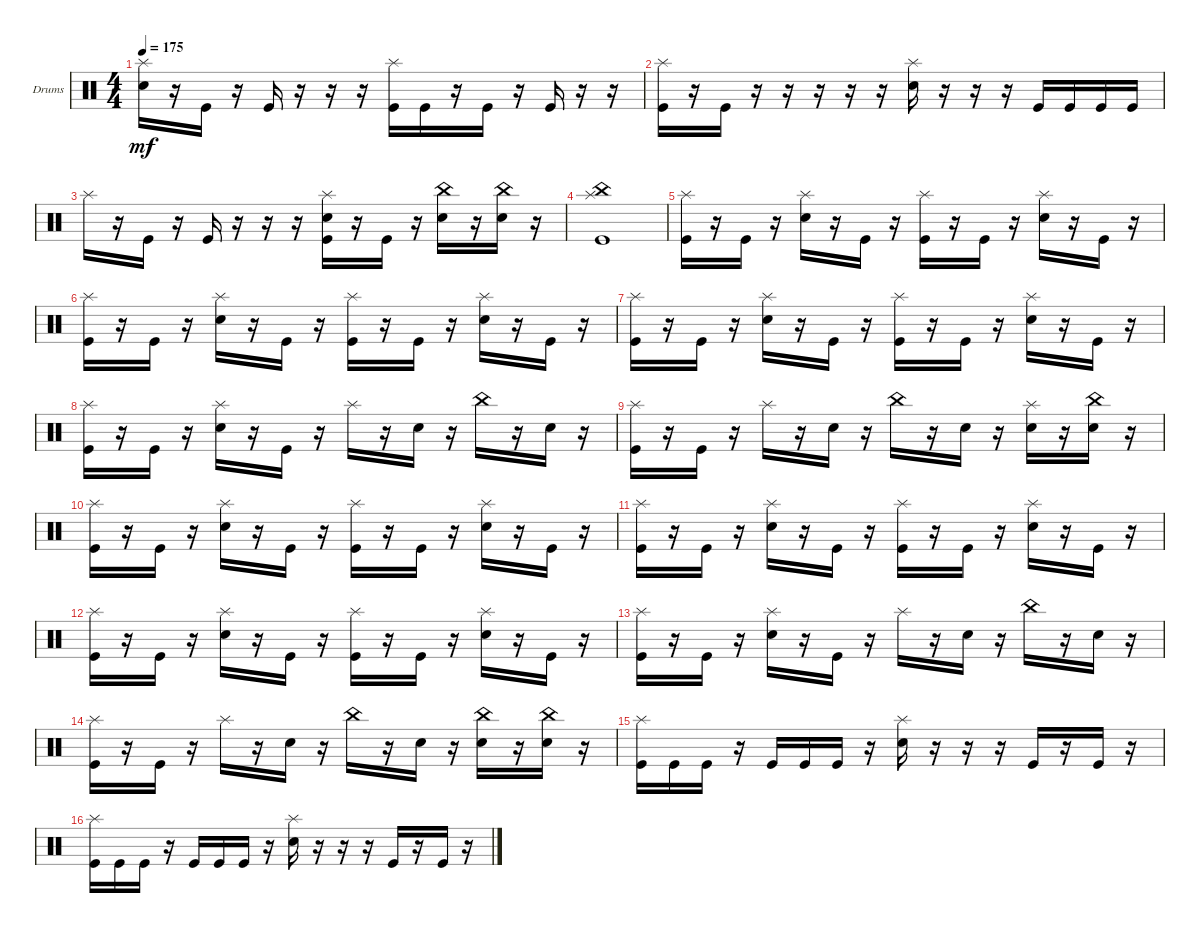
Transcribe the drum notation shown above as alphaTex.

\bracketExtendMode groupsimilarinstruments
\firstSystemTrackNameOrientation horizontal
\otherSystemsTrackNameOrientation horizontal
\track ("Drumkit" "Drums") {solo instrument percussion}
\staff {score}
\articulation defaults
\ts (4 4)
\tempo 175
\clef neutral
\ks c
("Splash (hit)" "Snare (hit) 2").16{dy mf} r.16 "Kick (hit)".16 r.16 "Kick (hit)".16 r.16 r.16 r.16 ("Splash (hit)" "Kick (hit)").16 "Kick (hit)".16 r.16 "Kick (hit)".16 r.16 "Kick (hit)".16 r.16 r.16 |
("Kick (hit)" "Splash (hit)").16 r.16 "Kick (hit)".16 r.16 r.16 r.16 r.16 r.16 ("Splash (hit)" "Snare (hit) 2").16 r.16 r.16 r.16 "Kick (hit)".16 "Kick (hit)".16 "Kick (hit)".16 "Kick (hit)".16 |
"Splash (hit)".16 r.16 "Kick (hit)".16 r.16 "Kick (hit)".16 r.16 r.16 r.16 ("Splash (hit)" "Kick (hit)" "Snare (hit) 2").16 r.16 "Kick (hit)".16 r.16 ("China (hit)" "Snare (hit) 2").16 r.16 ("China (hit)" "Snare (hit) 2").16 r.16 |
("Kick (hit)" "Splash (hit)" "China (hit)").1 |
("Splash (hit)" "Kick (hit)").16 r.16 "Kick (hit)".16 r.16 ("Splash (hit)" "Snare (hit) 2").16 r.16 "Kick (hit)".16 r.16 ("Splash (hit)" "Kick (hit)").16 r.16 "Kick (hit)".16 r.16 ("Splash (hit)" "Snare (hit) 2").16 r.16 "Kick (hit)".16 r.16 |
("Splash (hit)" "Kick (hit)").16 r.16 "Kick (hit)".16 r.16 ("Splash (hit)" "Snare (hit) 2").16 r.16 "Kick (hit)".16 r.16 ("Splash (hit)" "Kick (hit)").16 r.16 "Kick (hit)".16 r.16 ("Splash (hit)" "Snare (hit) 2").16 r.16 "Kick (hit)".16 r.16 |
("Splash (hit)" "Kick (hit)").16 r.16 "Kick (hit)".16 r.16 ("Splash (hit)" "Snare (hit) 2").16 r.16 "Kick (hit)".16 r.16 ("Splash (hit)" "Kick (hit)").16 r.16 "Kick (hit)".16 r.16 ("Splash (hit)" "Snare (hit) 2").16 r.16 "Kick (hit)".16 r.16 |
("Splash (hit)" "Kick (hit)").16 r.16 "Kick (hit)".16 r.16 ("Splash (hit)" "Snare (hit) 2").16 r.16 "Kick (hit)".16 r.16 "Splash (hit)".16 r.16 "Snare (hit) 2".16 r.16 "China (hit)".16 r.16 "Snare (hit) 2".16 r.16 |
("Splash (hit)" "Kick (hit)").16 r.16 "Kick (hit)".16 r.16 "Splash (hit)".16 r.16 "Snare (hit) 2".16 r.16 "China (hit)".16 r.16 "Snare (hit) 2".16 r.16 ("Splash (hit)" "Snare (hit) 2").16 r.16 ("Snare (hit) 2" "China (hit)").16 r.16 |
("Splash (hit)" "Kick (hit)").16 r.16 "Kick (hit)".16 r.16 ("Splash (hit)" "Snare (hit) 2").16 r.16 "Kick (hit)".16 r.16 ("Splash (hit)" "Kick (hit)").16 r.16 "Kick (hit)".16 r.16 ("Splash (hit)" "Snare (hit) 2").16 r.16 "Kick (hit)".16 r.16 |
("Splash (hit)" "Kick (hit)").16 r.16 "Kick (hit)".16 r.16 ("Splash (hit)" "Snare (hit) 2").16 r.16 "Kick (hit)".16 r.16 ("Splash (hit)" "Kick (hit)").16 r.16 "Kick (hit)".16 r.16 ("Splash (hit)" "Snare (hit) 2").16 r.16 "Kick (hit)".16 r.16 |
("Splash (hit)" "Kick (hit)").16 r.16 "Kick (hit)".16 r.16 ("Splash (hit)" "Snare (hit) 2").16 r.16 "Kick (hit)".16 r.16 ("Splash (hit)" "Kick (hit)").16 r.16 "Kick (hit)".16 r.16 ("Splash (hit)" "Snare (hit) 2").16 r.16 "Kick (hit)".16 r.16 |
("Splash (hit)" "Kick (hit)").16 r.16 "Kick (hit)".16 r.16 ("Splash (hit)" "Snare (hit) 2").16 r.16 "Kick (hit)".16 r.16 "Splash (hit)".16 r.16 "Snare (hit) 2".16 r.16 "China (hit)".16 r.16 "Snare (hit) 2".16 r.16 |
("Splash (hit)" "Kick (hit)").16 r.16 "Kick (hit)".16 r.16 "Splash (hit)".16 r.16 "Snare (hit) 2".16 r.16 "China (hit)".16 r.16 "Snare (hit) 2".16 r.16 ("Snare (hit) 2" "China (hit)").16 r.16 ("Snare (hit) 2" "China (hit)").16 r.16 |
("Kick (hit)" "Splash (hit)").16 "Kick (hit)".16 "Kick (hit)".16 r.16 "Kick (hit)".16 "Kick (hit)".16 "Kick (hit)".16 r.16 ("Splash (hit)" "Snare (hit) 2").16 r.16 r.16 r.16 "Kick (hit)".16 r.16 "Kick (hit)".16 r.16 |
("Kick (hit)" "Splash (hit)").16 "Kick (hit)".16 "Kick (hit)".16 r.16 "Kick (hit)".16 "Kick (hit)".16 "Kick (hit)".16 r.16 ("Splash (hit)" "Snare (hit) 2").16 r.16 r.16 r.16 "Kick (hit)".16 r.16 "Kick (hit)".16 r.16
